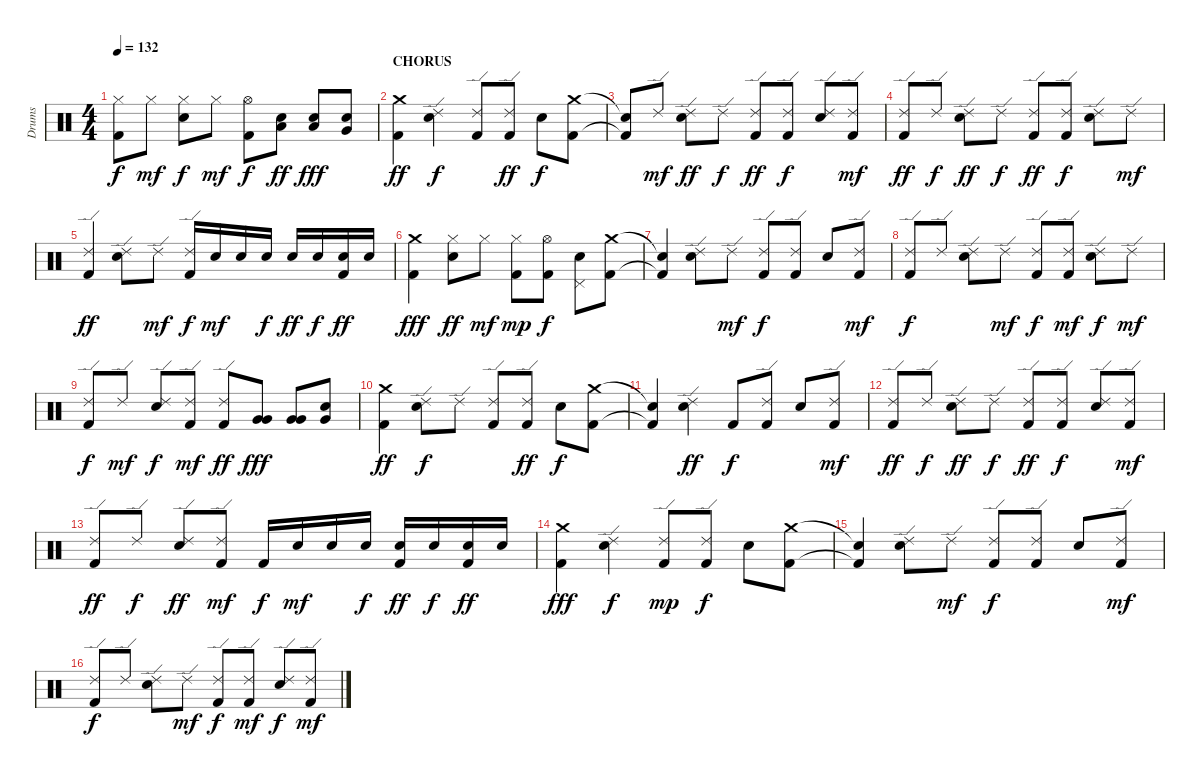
\track ("Drums" "Drums") {instrument percussion}
\staff {score}
\articulation defaults
\ts (4 4)
\tempo 132
\clef neutral
\ks c
("Hi-Hat (closed)" "Kick (hit) 2").8{dy f} "Hi-Hat (closed)".8{dy mf} ("Hi-Hat (closed)" "Electric Snare (hit)").8{dy f} "Hi-Hat (closed)".8{dy mf} ("Hi-Hat (open)" "Kick (hit) 2").8{dy f} ("Electric Snare (hit)" "Low Tom (hit)").8{dy ff} ("Electric Snare (hit)" "Low Tom (hit)").8{dy fff} ("Electric Snare (hit)" "Very Low Tom (hit)").8 |
\section ("" "CHORUS")
("Crash medium (hit)" "Kick (hit) 2").4{dy ff} ("Ride (edge) 2" "Electric Snare (hit)").4{dy f} ("Ride (edge) 2" "Kick (hit) 2").8 ("Ride (edge) 2" "Kick (hit) 2").8{dy ff} "Electric Snare (hit)".8{dy f} ("Crash medium (hit)" "Kick (hit) 2").8 |
("Snare (hit)"{t} "Kick (hit) 2"{t}).8 "Ride (edge) 2".8{dy mf} ("Ride (edge) 2" "Electric Snare (hit)").8{dy ff} "Ride (edge) 2".8{dy f} ("Ride (edge) 2" "Kick (hit) 2").8{dy ff} ("Ride (edge) 2" "Kick (hit) 2").8{dy f} ("Ride (edge) 2" "Electric Snare (hit)").8 ("Ride (edge) 2" "Kick (hit) 2").8{dy mf} |
("Ride (edge) 2" "Kick (hit) 2").8{dy ff} "Ride (edge) 2".8{dy f} ("Ride (edge) 2" "Electric Snare (hit)").8{dy ff} "Ride (edge) 2".8{dy f} ("Ride (edge) 2" "Kick (hit) 2").8{dy ff} ("Ride (edge) 2" "Kick (hit) 2").8{dy f} ("Ride (edge) 2" "Electric Snare (hit)").8 "Ride (edge) 2".8{dy mf} |
("Ride (edge) 2" "Kick (hit) 2").4{dy ff} ("Ride (edge) 2" "Electric Snare (hit)").8 "Ride (edge) 2".8{dy mf} ("Ride (edge) 2" "Kick (hit) 2").16{dy f} "Electric Snare (hit)".16{dy mf} "Electric Snare (hit)".16 "Electric Snare (hit)".16{dy f} "Electric Snare (hit)".16{dy ff} "Electric Snare (hit)".16{dy f} ("Electric Snare (hit)" "Kick (hit) 2").16{dy ff} "Electric Snare (hit)".16 |
("Crash medium (hit)" "Kick (hit) 2").4{dy fff} ("Hi-Hat (closed)" "Electric Snare (hit)").8{dy ff} "Hi-Hat (closed)".8{dy mf} ("Hi-Hat (closed)" "Kick (hit) 2").8{dy mp} ("Hi-Hat (open)" "Kick (hit) 2").8{dy f} ("Electric Snare (hit)" "Pedal Hi-Hat (hit)").8 ("Crash medium (hit)" "Kick (hit) 2").8 |
("Snare (hit)"{t} "Kick (hit) 2"{t}).4 ("Ride (edge) 2" "Electric Snare (hit)").8 "Ride (edge) 2".8{dy mf} ("Ride (edge) 2" "Kick (hit) 2").8{dy f} ("Ride (edge) 2" "Kick (hit) 2").8 "Electric Snare (hit)".8 ("Ride (edge) 2" "Kick (hit) 2").8{dy mf} |
("Ride (edge) 2" "Kick (hit) 2").8{dy f} "Ride (edge) 2".8 ("Ride (edge) 2" "Electric Snare (hit)").8 "Ride (edge) 2".8{dy mf} ("Ride (edge) 2" "Kick (hit) 2").8{dy f} ("Ride (edge) 2" "Kick (hit) 2").8{dy mf} ("Ride (edge) 2" "Electric Snare (hit)").8{dy f} "Ride (edge) 2".8{dy mf} |
("Ride (edge) 2" "Kick (hit) 2").8{dy f} "Ride (edge) 2".8{dy mf} ("Ride (edge) 2" "Electric Snare (hit)").8{dy f} ("Ride (edge) 2" "Kick (hit) 2").8{dy mf} ("Ride (edge) 2" "Kick (hit) 2").8{dy ff} ("Very Low Tom (hit)" "Very Low Tom (hit)").8{dy fff} ("Very Low Tom (hit)" "Very Low Tom (hit)").8 ("Electric Snare (hit)" "Very Low Tom (hit)").8 |
("Crash medium (hit)" "Kick (hit) 2").4{dy ff} ("Ride (edge) 2" "Electric Snare (hit)").8{dy f} "Ride (edge) 2".8 ("Ride (edge) 2" "Kick (hit) 2").8 ("Ride (edge) 2" "Kick (hit) 2").8{dy ff} "Electric Snare (hit)".8{dy f} ("Crash medium (hit)" "Kick (hit) 2").8 |
("Snare (hit)"{t} "Kick (hit) 2"{t}).4 ("Ride (edge) 2" "Electric Snare (hit)").4{dy ff} "Kick (hit) 2".8{dy f} ("Ride (edge) 2" "Kick (hit) 2").8 "Electric Snare (hit)".8 ("Ride (edge) 2" "Kick (hit) 2").8{dy mf} |
("Ride (edge) 2" "Kick (hit) 2").8{dy ff} "Ride (edge) 2".8{dy f} ("Ride (edge) 2" "Electric Snare (hit)").8{dy ff} "Ride (edge) 2".8{dy f} ("Ride (edge) 2" "Kick (hit) 2").8{dy ff} ("Ride (edge) 2" "Kick (hit) 2").8{dy f} ("Ride (edge) 2" "Electric Snare (hit)").8 ("Ride (edge) 2" "Kick (hit) 2").8{dy mf} |
("Ride (edge) 2" "Kick (hit) 2").8{dy ff} "Ride (edge) 2".8{dy f} ("Ride (edge) 2" "Electric Snare (hit)").8{dy ff} ("Ride (edge) 2" "Kick (hit) 2").8{dy mf} "Kick (hit) 2".16{dy f} "Electric Snare (hit)".16{dy mf} "Electric Snare (hit)".16 "Electric Snare (hit)".16{dy f} ("Electric Snare (hit)" "Kick (hit) 2").16{dy ff} "Electric Snare (hit)".16{dy f} ("Electric Snare (hit)" "Kick (hit) 2").16{dy ff} "Electric Snare (hit)".16 |
("Crash medium (hit)" "Kick (hit) 2").4{dy fff} ("Ride (edge) 2" "Electric Snare (hit)").4{dy f} ("Ride (edge) 2" "Kick (hit) 2").8{dy mp} ("Ride (edge) 2" "Kick (hit) 2").8{dy f} "Electric Snare (hit)".8 ("Crash medium (hit)" "Kick (hit) 2").8 |
("Snare (hit)"{t} "Kick (hit) 2"{t}).4 ("Ride (edge) 2" "Electric Snare (hit)").8 "Ride (edge) 2".8{dy mf} ("Ride (edge) 2" "Kick (hit) 2").8{dy f} ("Ride (edge) 2" "Kick (hit) 2").8 "Electric Snare (hit)".8 ("Ride (edge) 2" "Kick (hit) 2").8{dy mf} |
("Ride (edge) 2" "Kick (hit) 2").8{dy f} "Ride (edge) 2".8 ("Ride (edge) 2" "Electric Snare (hit)").8 "Ride (edge) 2".8{dy mf} ("Ride (edge) 2" "Kick (hit) 2").8{dy f} ("Ride (edge) 2" "Kick (hit) 2").8{dy mf} ("Ride (edge) 2" "Electric Snare (hit)").8{dy f} ("Ride (edge) 2" "Kick (hit) 2").8{dy mf}
